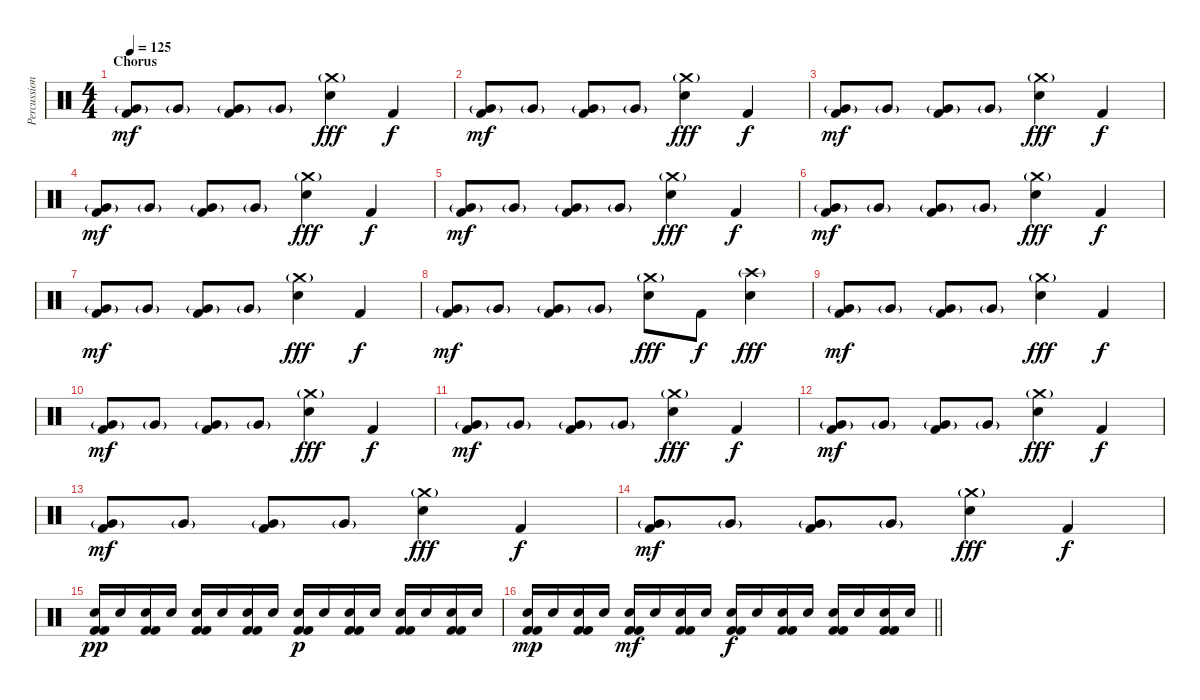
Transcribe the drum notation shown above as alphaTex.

\track ("Percussion" "Percussion") {solo instrument percussion}
\staff {score}
\articulation defaults
\ts (4 4)
\section ("" "Chorus")
\tempo 125
\clef neutral
\ks c
("Very Low Tom (hit)"{g} "Kick (hit) 2").8{dy mf} "Very Low Tom (hit)"{g}.8 ("Very Low Tom (hit)"{g} "Kick (hit) 2").8 "Very Low Tom (hit)"{g}.8 ("Crash medium (hit)"{g} "Electric Snare (hit)").4{dy fff} "Kick (hit) 2".4{dy f} |
("Very Low Tom (hit)"{g} "Kick (hit) 2").8{dy mf} "Very Low Tom (hit)"{g}.8 ("Very Low Tom (hit)"{g} "Kick (hit) 2").8 "Very Low Tom (hit)"{g}.8 ("Crash medium (hit)"{g} "Electric Snare (hit)").4{dy fff} "Kick (hit) 2".4{dy f} |
("Very Low Tom (hit)"{g} "Kick (hit) 2").8{dy mf} "Very Low Tom (hit)"{g}.8 ("Very Low Tom (hit)"{g} "Kick (hit) 2").8 "Very Low Tom (hit)"{g}.8 ("Crash medium (hit)"{g} "Electric Snare (hit)").4{dy fff} "Kick (hit) 2".4{dy f} |
("Very Low Tom (hit)"{g} "Kick (hit) 2").8{dy mf} "Very Low Tom (hit)"{g}.8 ("Very Low Tom (hit)"{g} "Kick (hit) 2").8 "Very Low Tom (hit)"{g}.8 ("Crash medium (hit)"{g} "Electric Snare (hit)").4{dy fff} "Kick (hit) 2".4{dy f} |
("Very Low Tom (hit)"{g} "Kick (hit) 2").8{dy mf} "Very Low Tom (hit)"{g}.8 ("Very Low Tom (hit)"{g} "Kick (hit) 2").8 "Very Low Tom (hit)"{g}.8 ("Crash medium (hit)"{g} "Electric Snare (hit)").4{dy fff} "Kick (hit) 2".4{dy f} |
("Very Low Tom (hit)"{g} "Kick (hit) 2").8{dy mf} "Very Low Tom (hit)"{g}.8 ("Very Low Tom (hit)"{g} "Kick (hit) 2").8 "Very Low Tom (hit)"{g}.8 ("Crash medium (hit)"{g} "Electric Snare (hit)").4{dy fff} "Kick (hit) 2".4{dy f} |
("Very Low Tom (hit)"{g} "Kick (hit) 2").8{dy mf} "Very Low Tom (hit)"{g}.8 ("Very Low Tom (hit)"{g} "Kick (hit) 2").8 "Very Low Tom (hit)"{g}.8 ("Crash medium (hit)"{g} "Electric Snare (hit)").4{dy fff} "Kick (hit) 2".4{dy f} |
("Very Low Tom (hit)"{g} "Kick (hit) 2").8{dy mf} "Very Low Tom (hit)"{g}.8 ("Very Low Tom (hit)"{g} "Kick (hit) 2").8 "Very Low Tom (hit)"{g}.8 ("Crash medium (hit)"{g} "Electric Snare (hit)").8{dy fff} "Kick (hit) 2".8{dy f} ("Crash high (hit)"{g} "Electric Snare (hit)").4{dy fff} |
("Very Low Tom (hit)"{g} "Kick (hit) 2").8{dy mf} "Very Low Tom (hit)"{g}.8 ("Very Low Tom (hit)"{g} "Kick (hit) 2").8 "Very Low Tom (hit)"{g}.8 ("Crash medium (hit)"{g} "Electric Snare (hit)").4{dy fff} "Kick (hit) 2".4{dy f} |
("Very Low Tom (hit)"{g} "Kick (hit) 2").8{dy mf} "Very Low Tom (hit)"{g}.8 ("Very Low Tom (hit)"{g} "Kick (hit) 2").8 "Very Low Tom (hit)"{g}.8 ("Crash medium (hit)"{g} "Electric Snare (hit)").4{dy fff} "Kick (hit) 2".4{dy f} |
("Very Low Tom (hit)"{g} "Kick (hit) 2").8{dy mf} "Very Low Tom (hit)"{g}.8 ("Very Low Tom (hit)"{g} "Kick (hit) 2").8 "Very Low Tom (hit)"{g}.8 ("Crash medium (hit)"{g} "Electric Snare (hit)").4{dy fff} "Kick (hit) 2".4{dy f} |
("Very Low Tom (hit)"{g} "Kick (hit) 2").8{dy mf} "Very Low Tom (hit)"{g}.8 ("Very Low Tom (hit)"{g} "Kick (hit) 2").8 "Very Low Tom (hit)"{g}.8 ("Crash medium (hit)"{g} "Electric Snare (hit)").4{dy fff} "Kick (hit) 2".4{dy f} |
("Very Low Tom (hit)"{g} "Kick (hit) 2").8{dy mf} "Very Low Tom (hit)"{g}.8 ("Very Low Tom (hit)"{g} "Kick (hit) 2").8 "Very Low Tom (hit)"{g}.8 ("Crash medium (hit)"{g} "Electric Snare (hit)").4{dy fff} "Kick (hit) 2".4{dy f} |
("Very Low Tom (hit)"{g} "Kick (hit) 2").8{dy mf} "Very Low Tom (hit)"{g}.8 ("Very Low Tom (hit)"{g} "Kick (hit) 2").8 "Very Low Tom (hit)"{g}.8 ("Crash medium (hit)"{g} "Electric Snare (hit)").4{dy fff} "Kick (hit) 2".4{dy f} |
("Electric Snare (hit)" "Kick (hit) 2" "Kick (hit) 2").16{dy pp} "Electric Snare (hit)".16 ("Electric Snare (hit)" "Kick (hit) 2" "Kick (hit) 2").16 "Electric Snare (hit)".16 ("Electric Snare (hit)" "Kick (hit) 2" "Kick (hit) 2").16 "Electric Snare (hit)".16 ("Electric Snare (hit)" "Kick (hit) 2" "Kick (hit) 2").16 "Electric Snare (hit)".16 ("Electric Snare (hit)" "Kick (hit) 2" "Kick (hit) 2").16{dy p} "Electric Snare (hit)".16 ("Electric Snare (hit)" "Kick (hit) 2" "Kick (hit) 2").16 "Electric Snare (hit)".16 ("Electric Snare (hit)" "Kick (hit) 2" "Kick (hit) 2").16 "Electric Snare (hit)".16 ("Electric Snare (hit)" "Kick (hit) 2" "Kick (hit) 2").16 "Electric Snare (hit)".16 |
\barLineRight lightlight
("Electric Snare (hit)" "Kick (hit) 2" "Kick (hit) 2").16{dy mp} "Electric Snare (hit)".16 ("Electric Snare (hit)" "Kick (hit) 2" "Kick (hit) 2").16 "Electric Snare (hit)".16 ("Electric Snare (hit)" "Kick (hit) 2" "Kick (hit) 2").16{dy mf} "Electric Snare (hit)".16 ("Electric Snare (hit)" "Kick (hit) 2" "Kick (hit) 2").16 "Electric Snare (hit)".16 ("Electric Snare (hit)" "Kick (hit) 2" "Kick (hit) 2").16{dy f} "Electric Snare (hit)".16 ("Electric Snare (hit)" "Kick (hit) 2" "Kick (hit) 2").16 "Electric Snare (hit)".16 ("Electric Snare (hit)" "Kick (hit) 2" "Kick (hit) 2").16 "Electric Snare (hit)".16 ("Electric Snare (hit)" "Kick (hit) 2" "Kick (hit) 2").16 "Electric Snare (hit)".16
